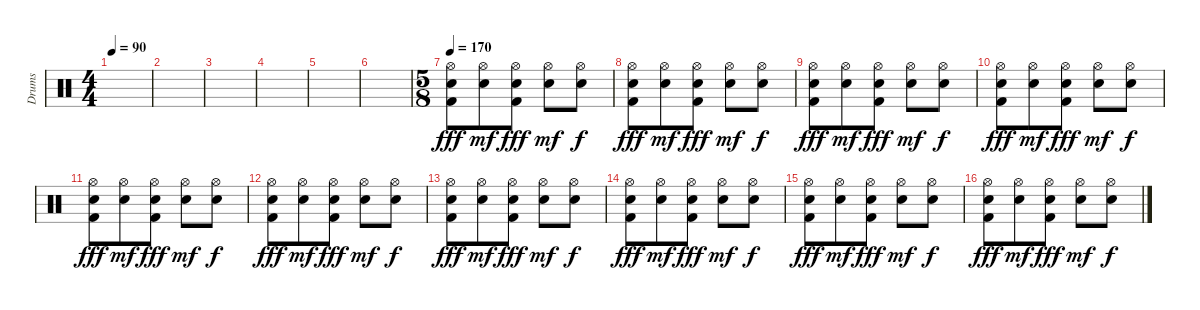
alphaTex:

\track ("Drums" "Drums") {instrument percussion}
\staff {score}
\articulation defaults
\ts (4 4)
\tempo 90
\clef neutral
\ks c
|
|
|
|
|
|
\ts (5 8)
\tempo 170
("Hi-Hat (open)" "Snare (hit) 2" "Kick (hit) 2").8{dy fff} ("Hi-Hat (open)" "Snare (hit) 2").8{dy mf} ("Hi-Hat (open)" "Snare (hit) 2" "Kick (hit) 2").8{dy fff} ("Hi-Hat (open)" "Snare (hit) 2").8{dy mf} ("Hi-Hat (open)" "Snare (hit) 2").8{dy f} |
("Hi-Hat (open)" "Snare (hit) 2" "Kick (hit) 2").8{dy fff} ("Hi-Hat (open)" "Snare (hit) 2").8{dy mf} ("Hi-Hat (open)" "Snare (hit) 2" "Kick (hit) 2").8{dy fff} ("Hi-Hat (open)" "Snare (hit) 2").8{dy mf} ("Hi-Hat (open)" "Snare (hit) 2").8{dy f} |
("Hi-Hat (open)" "Snare (hit) 2" "Kick (hit) 2").8{dy fff} ("Hi-Hat (open)" "Snare (hit) 2").8{dy mf} ("Hi-Hat (open)" "Snare (hit) 2" "Kick (hit) 2").8{dy fff} ("Hi-Hat (open)" "Snare (hit) 2").8{dy mf} ("Hi-Hat (open)" "Snare (hit) 2").8{dy f} |
("Hi-Hat (open)" "Snare (hit) 2" "Kick (hit) 2").8{dy fff} ("Hi-Hat (open)" "Snare (hit) 2").8{dy mf} ("Hi-Hat (open)" "Snare (hit) 2" "Kick (hit) 2").8{dy fff} ("Hi-Hat (open)" "Snare (hit) 2").8{dy mf} ("Hi-Hat (open)" "Snare (hit) 2").8{dy f} |
("Hi-Hat (open)" "Snare (hit) 2" "Kick (hit) 2").8{dy fff} ("Hi-Hat (open)" "Snare (hit) 2").8{dy mf} ("Hi-Hat (open)" "Snare (hit) 2" "Kick (hit) 2").8{dy fff} ("Hi-Hat (open)" "Snare (hit) 2").8{dy mf} ("Hi-Hat (open)" "Snare (hit) 2").8{dy f} |
("Hi-Hat (open)" "Snare (hit) 2" "Kick (hit) 2").8{dy fff} ("Hi-Hat (open)" "Snare (hit) 2").8{dy mf} ("Hi-Hat (open)" "Snare (hit) 2" "Kick (hit) 2").8{dy fff} ("Hi-Hat (open)" "Snare (hit) 2").8{dy mf} ("Hi-Hat (open)" "Snare (hit) 2").8{dy f} |
("Hi-Hat (open)" "Snare (hit) 2" "Kick (hit) 2").8{dy fff} ("Hi-Hat (open)" "Snare (hit) 2").8{dy mf} ("Hi-Hat (open)" "Snare (hit) 2" "Kick (hit) 2").8{dy fff} ("Hi-Hat (open)" "Snare (hit) 2").8{dy mf} ("Hi-Hat (open)" "Snare (hit) 2").8{dy f} |
("Hi-Hat (open)" "Snare (hit) 2" "Kick (hit) 2").8{dy fff} ("Hi-Hat (open)" "Snare (hit) 2").8{dy mf} ("Hi-Hat (open)" "Snare (hit) 2" "Kick (hit) 2").8{dy fff} ("Hi-Hat (open)" "Snare (hit) 2").8{dy mf} ("Hi-Hat (open)" "Snare (hit) 2").8{dy f} |
("Hi-Hat (open)" "Snare (hit) 2" "Kick (hit) 2").8{dy fff} ("Hi-Hat (open)" "Snare (hit) 2").8{dy mf} ("Hi-Hat (open)" "Snare (hit) 2" "Kick (hit) 2").8{dy fff} ("Hi-Hat (open)" "Snare (hit) 2").8{dy mf} ("Hi-Hat (open)" "Snare (hit) 2").8{dy f} |
("Hi-Hat (open)" "Snare (hit) 2" "Kick (hit) 2").8{dy fff} ("Hi-Hat (open)" "Snare (hit) 2").8{dy mf} ("Hi-Hat (open)" "Snare (hit) 2" "Kick (hit) 2").8{dy fff} ("Hi-Hat (open)" "Snare (hit) 2").8{dy mf} ("Hi-Hat (open)" "Snare (hit) 2").8{dy f}
